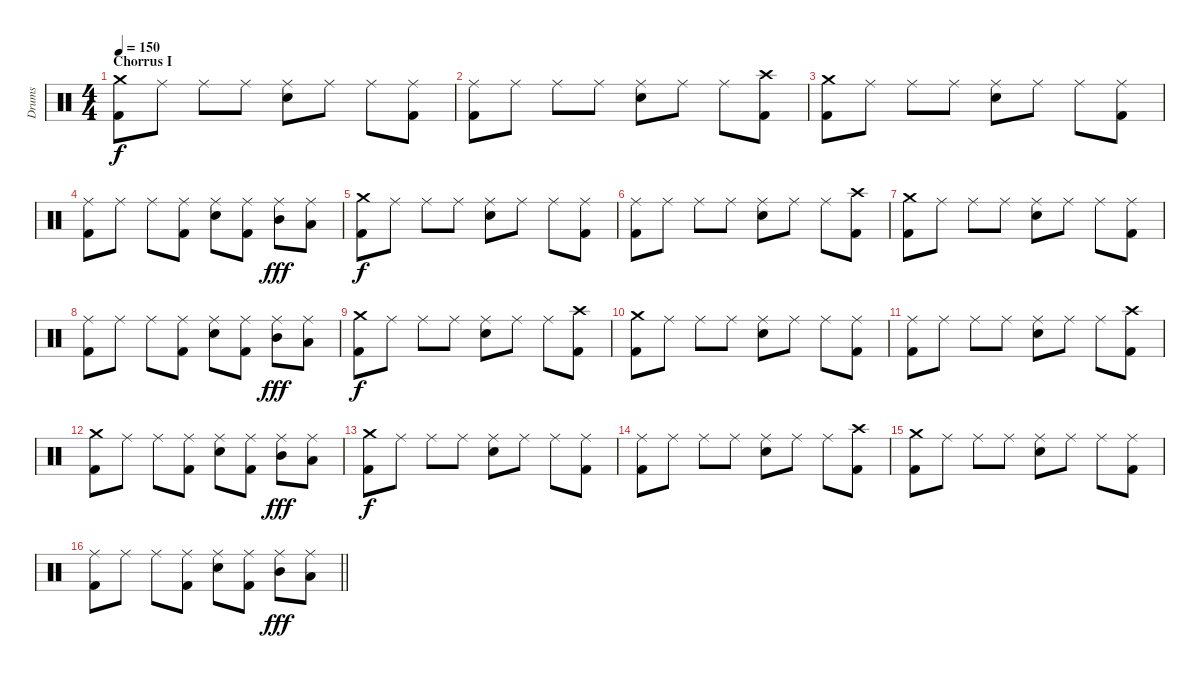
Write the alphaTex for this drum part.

\track ("Drums" "Drums") {instrument percussion}
\staff {score}
\articulation defaults
\ts (4 4)
\section ("" "Chorrus I")
\tempo 150
\clef neutral
\ks c
("Crash medium (hit)" "Kick (hit) 2").8{dy f} "Ride (middle)".8 "Ride (middle)".8 "Ride (middle)".8 ("Ride (middle)" "Electric Snare (hit)").8 "Ride (middle)".8 "Ride (middle)".8 ("Ride (middle)" "Kick (hit) 2").8 |
("Ride (middle)" "Kick (hit) 2").8 "Ride (middle)".8 "Ride (middle)".8 "Ride (middle)".8 ("Ride (middle)" "Electric Snare (hit)").8 "Ride (middle)".8 "Ride (middle)".8 ("Crash high (hit)" "Kick (hit) 2").8 |
("Crash medium (hit)" "Kick (hit) 2").8 "Ride (middle)".8 "Ride (middle)".8 "Ride (middle)".8 ("Ride (middle)" "Electric Snare (hit)").8 "Ride (middle)".8 "Ride (middle)".8 ("Ride (middle)" "Kick (hit) 2").8 |
("Ride (middle)" "Kick (hit) 2").8 "Ride (middle)".8 "Ride (middle)".8 ("Ride (middle)" "Kick (hit) 2").8 ("Ride (middle)" "Electric Snare (hit)").8 ("Ride (middle)" "Kick (hit) 2").8 ("Ride (middle)" "Mid Tom (hit)").8{dy fff} ("Ride (middle)" "Low Tom (hit)").8 |
("Crash medium (hit)" "Kick (hit) 2").8{dy f} "Ride (middle)".8 "Ride (middle)".8 "Ride (middle)".8 ("Ride (middle)" "Electric Snare (hit)").8 "Ride (middle)".8 "Ride (middle)".8 ("Ride (middle)" "Kick (hit) 2").8 |
("Ride (middle)" "Kick (hit) 2").8 "Ride (middle)".8 "Ride (middle)".8 "Ride (middle)".8 ("Ride (middle)" "Electric Snare (hit)").8 "Ride (middle)".8 "Ride (middle)".8 ("Crash high (hit)" "Kick (hit) 2").8 |
("Crash medium (hit)" "Kick (hit) 2").8 "Ride (middle)".8 "Ride (middle)".8 "Ride (middle)".8 ("Ride (middle)" "Electric Snare (hit)").8 "Ride (middle)".8 "Ride (middle)".8 ("Ride (middle)" "Kick (hit) 2").8 |
("Ride (middle)" "Kick (hit) 2").8 "Ride (middle)".8 "Ride (middle)".8 ("Ride (middle)" "Kick (hit) 2").8 ("Ride (middle)" "Electric Snare (hit)").8 ("Ride (middle)" "Kick (hit) 2").8 ("Ride (middle)" "Mid Tom (hit)").8{dy fff} ("Ride (middle)" "Low Tom (hit)").8 |
("Crash medium (hit)" "Kick (hit) 2").8{dy f} "Ride (middle)".8 "Ride (middle)".8 "Ride (middle)".8 ("Ride (middle)" "Electric Snare (hit)").8 "Ride (middle)".8 "Ride (middle)".8 ("Crash high (hit)" "Kick (hit) 2").8 |
("Crash medium (hit)" "Kick (hit) 2").8 "Ride (middle)".8 "Ride (middle)".8 "Ride (middle)".8 ("Ride (middle)" "Electric Snare (hit)").8 "Ride (middle)".8 "Ride (middle)".8 ("Ride (middle)" "Kick (hit) 2").8 |
("Ride (middle)" "Kick (hit) 2").8 "Ride (middle)".8 "Ride (middle)".8 "Ride (middle)".8 ("Ride (middle)" "Electric Snare (hit)").8 "Ride (middle)".8 "Ride (middle)".8 ("Crash high (hit)" "Kick (hit) 2").8 |
("Crash medium (hit)" "Kick (hit) 2").8 "Ride (middle)".8 "Ride (middle)".8 ("Ride (middle)" "Kick (hit) 2").8 ("Ride (middle)" "Electric Snare (hit)").8 ("Ride (middle)" "Kick (hit) 2").8 ("Ride (middle)" "Mid Tom (hit)").8{dy fff} ("Ride (middle)" "Low Tom (hit)").8 |
("Crash medium (hit)" "Kick (hit) 2").8{dy f} "Ride (middle)".8 "Ride (middle)".8 "Ride (middle)".8 ("Ride (middle)" "Electric Snare (hit)").8 "Ride (middle)".8 "Ride (middle)".8 ("Ride (middle)" "Kick (hit) 2").8 |
("Ride (middle)" "Kick (hit) 2").8 "Ride (middle)".8 "Ride (middle)".8 "Ride (middle)".8 ("Ride (middle)" "Electric Snare (hit)").8 "Ride (middle)".8 "Ride (middle)".8 ("Crash high (hit)" "Kick (hit) 2").8 |
("Crash medium (hit)" "Kick (hit) 2").8 "Ride (middle)".8 "Ride (middle)".8 "Ride (middle)".8 ("Ride (middle)" "Electric Snare (hit)").8 "Ride (middle)".8 "Ride (middle)".8 ("Ride (middle)" "Kick (hit) 2").8 |
\barLineRight lightlight
("Ride (middle)" "Kick (hit) 2").8 "Ride (middle)".8 "Ride (middle)".8 ("Ride (middle)" "Kick (hit) 2").8 ("Ride (middle)" "Electric Snare (hit)").8 ("Ride (middle)" "Kick (hit) 2").8 ("Ride (middle)" "Mid Tom (hit)").8{dy fff} ("Ride (middle)" "Low Tom (hit)").8
